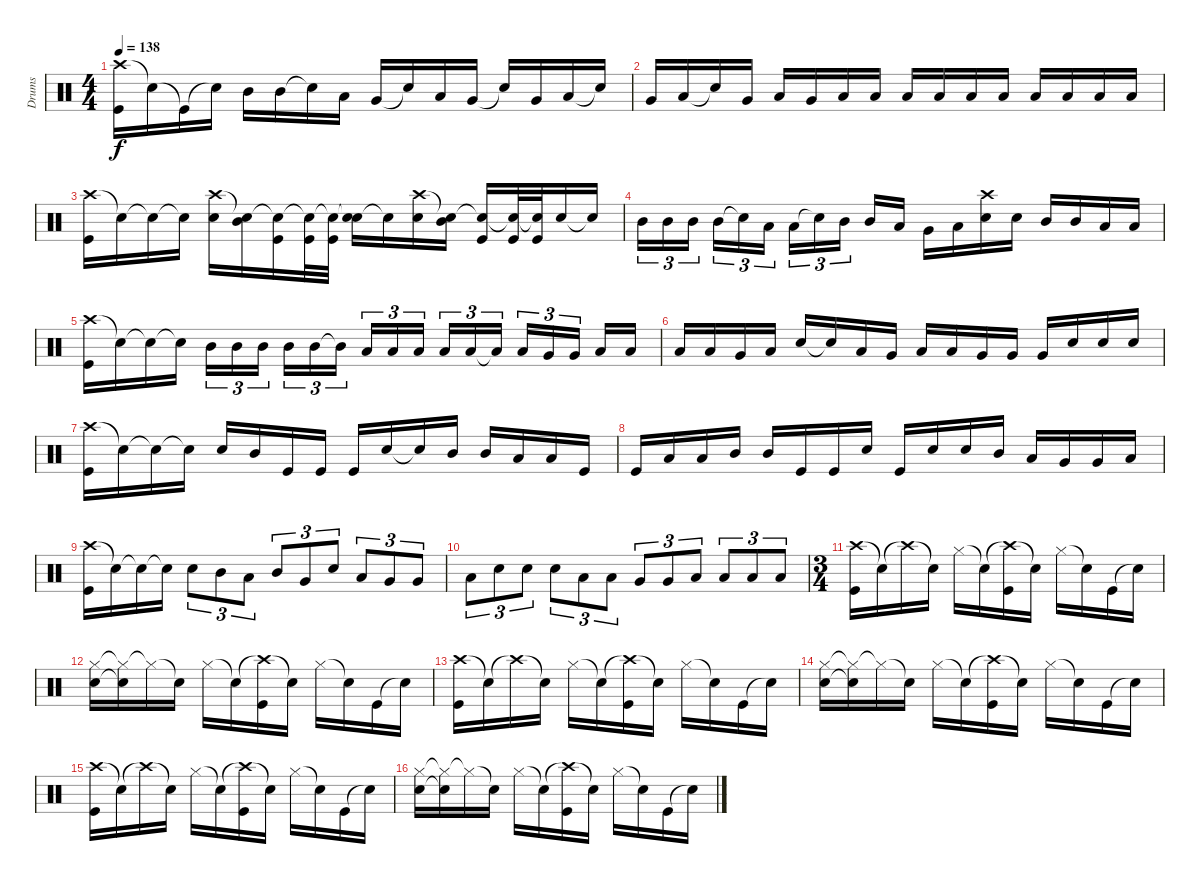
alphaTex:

\track ("Drums" "Drums") {instrument percussion}
\staff {score}
\articulation defaults
\ts (4 4)
\tempo 138
\clef neutral
\ks c
("Crash high (hit)" "Kick (hit)").16{dy f} "Snare (hit)"{t}.16 "Kick (hit)"{t}.16 "Snare (hit)"{t}.16 "Mid Tom (hit)".16 "Mid Tom (hit)".16 "Snare (hit)"{t}.16 "Low Tom (hit)".16 "Very Low Tom (hit)".16 "Snare (hit)"{t}.16 "Low Tom (hit)".16 "Very Low Tom (hit)".16 "Snare (hit)"{t}.16 "Very Low Tom (hit)".16 "Low Floor Tom (hit)".16 "Snare (hit)"{t}.16 |
"Very Low Tom (hit)".16 "Low Floor Tom (hit)".16 "Snare (hit)"{t}.16 "Very Low Tom (hit)".16 "Low Tom (hit)".16 "Very Low Tom (hit)".16 "Low Floor Tom (hit)".16 "Low Tom (hit)".16 "Low Floor Tom (hit)".16 "Low Floor Tom (hit)".16 "Low Floor Tom (hit)".16 "Low Floor Tom (hit)".16 "Low Floor Tom (hit)".16 "Low Tom (hit)".16 "Low Floor Tom (hit)".16 "Low Floor Tom (hit)".16 |
("Crash high (hit)" "Kick (hit)").16 "Snare (hit)"{t}.16 "Snare (hit)"{t}.16 "Snare (hit)"{t}.16 ("Crash high (hit)" "Electric Snare (hit)").16 ("Snare (hit)"{t} "Mid Tom (hit)").16 ("Snare (hit)"{t} "Kick (hit)").16 ("Snare (hit)"{t} "Kick (hit)").32 ("Snare (hit)"{t} "Kick (hit)").32 ("Snare (hit)"{t} "Electric Snare (hit)").16 "Snare (hit)"{t}.16 ("Crash high (hit)" "Electric Snare (hit)").16 ("Snare (hit)"{t} "Mid Tom (hit)").16 ("Snare (hit)"{t} "Kick (hit)").16 ("Snare (hit)"{t} "Kick (hit)").32 ("Snare (hit)"{t} "Kick (hit)").32 "Electric Snare (hit)".16 "Snare (hit)"{t}.16 |
"Mid Tom (hit)".16{tu (3 2)} "Mid Tom (hit)".16{tu (3 2)} "Mid Tom (hit)".16{tu (3 2)} "Mid Tom (hit)".16{tu (3 2)} "Snare (hit)"{t}.16{tu (3 2)} "Low Tom (hit)".16{tu (3 2)} "Low Tom (hit)".16{tu (3 2)} "Snare (hit)"{t}.16{tu (3 2)} "Mid Tom (hit)".16{tu (3 2)} "Mid Tom (hit)".16 "Low Tom (hit)".16 "Very Low Tom (hit)".16 "Low Floor Tom (hit)".16 ("Crash high (hit)" "Electric Snare (hit)").16 "Electric Snare (hit)".16 "Mid Tom (hit)".16 "Mid Tom (hit)".16 "Low Tom (hit)".16 "Low Tom (hit)".16 |
("Crash high (hit)" "Kick (hit)").16 "Snare (hit)"{t}.16 "Snare (hit)"{t}.16 "Snare (hit)"{t}.16 "Mid Tom (hit)".16{tu (3 2)} "Mid Tom (hit)".16{tu (3 2)} "Mid Tom (hit)".16{tu (3 2)} "Mid Tom (hit)".16{tu (3 2)} "Mid Tom (hit)".16{tu (3 2)} "Mid Tom (hit)"{t}.16{tu (3 2)} "Low Tom (hit)".16{tu (3 2)} "Low Tom (hit)".16{tu (3 2)} "Low Tom (hit)".16{tu (3 2)} "Low Tom (hit)".16{tu (3 2)} "Low Tom (hit)".16{tu (3 2)} "Low Tom (hit)"{t}.16{tu (3 2)} "Low Tom (hit)".16{tu (3 2)} "Very Low Tom (hit)".16{tu (3 2)} "Very Low Tom (hit)".16{tu (3 2)} "Low Floor Tom (hit)".16 "Low Floor Tom (hit)".16 |
"Low Floor Tom (hit)".16 "Low Tom (hit)".16 "Very Low Tom (hit)".16 "Low Floor Tom (hit)".16 "Electric Snare (hit)".16 "Electric Snare (hit)"{t}.16 "Low Tom (hit)".16 "Very Low Tom (hit)".16 "Low Floor Tom (hit)".16 "Low Tom (hit)".16 "Very Low Tom (hit)".16 "Very Low Tom (hit)".16 "Very Low Tom (hit)".16 "Electric Snare (hit)".16 "Electric Snare (hit)".16 "Electric Snare (hit)".16 |
("Crash high (hit)" "Kick (hit)").16 "Snare (hit)"{t}.16 "Snare (hit)"{t}.16 "Snare (hit)"{t}.16 "Electric Snare (hit)".16 "Mid Tom (hit)".16 "Kick (hit)".16 "Kick (hit)".16 "Kick (hit)".16 "Electric Snare (hit)".16 "Snare (hit)"{t}.16 "Mid Tom (hit)".16 "Mid Tom (hit)".16 "Low Tom (hit)".16 "Low Tom (hit)".16 "Kick (hit)".16 |
"Kick (hit)".16 "Low Tom (hit)".16 "Low Tom (hit)".16 "Mid Tom (hit)".16 "Mid Tom (hit)".16 "Kick (hit)".16 "Kick (hit)".16 "Electric Snare (hit)".16 "Kick (hit)".16 "Electric Snare (hit)".16 "Electric Snare (hit)".16 "Mid Tom (hit)".16 "Low Tom (hit)".16 "Very Low Tom (hit)".16 "Very Low Tom (hit)".16 "Low Floor Tom (hit)".16 |
("Crash high (hit)" "Kick (hit)").16 "Snare (hit)"{t}.16 "Snare (hit)"{t}.16 "Snare (hit)"{t}.16 "Electric Snare (hit)".8{tu (3 2)} "Mid Tom (hit)".8{tu (3 2)} "Low Tom (hit)".8{tu (3 2)} "Mid Tom (hit)".8{tu (3 2)} "Very Low Tom (hit)".8{tu (3 2)} "Electric Snare (hit)".8{tu (3 2)} "Low Tom (hit)".8{tu (3 2)} "Very Low Tom (hit)".8{tu (3 2)} "Very Low Tom (hit)".8{tu (3 2)} |
"Low Tom (hit)".8{tu (3 2)} "Electric Snare (hit)".8{tu (3 2)} "Electric Snare (hit)".8{tu (3 2)} "Electric Snare (hit)".8{tu (3 2)} "Low Tom (hit)".8{tu (3 2)} "Low Tom (hit)".8{tu (3 2)} "Very Low Tom (hit)".8{tu (3 2)} "Very Low Tom (hit)".8{tu (3 2)} "Low Floor Tom (hit)".8{tu (3 2)} "Low Floor Tom (hit)".8{tu (3 2)} "Low Floor Tom (hit)".8{tu (3 2)} "Low Floor Tom (hit)".8{tu (3 2)} |
\ts (3 4)
("Crash high (hit)" "Kick (hit)").16 "Snare (hit)"{t}.16 "Crash high (hit)"{t}.16 "Snare (hit)"{t}.16 "Hi-Hat (closed)".16 "Snare (hit)"{t}.16 ("Crash high (hit)"{t} "Kick (hit)").16 "Snare (hit)"{t}.16 "Hi-Hat (closed)".16 "Snare (hit)"{t}.16 "Kick (hit)".16 "Snare (hit)"{t}.16 |
("Hi-Hat (closed)" "Electric Snare (hit)").16 ("Hi-Hat (closed)"{t} "Snare (hit)"{t}).16 "Hi-Hat (closed)"{t}.16 "Snare (hit)"{t}.16 "Hi-Hat (closed)".16 "Snare (hit)"{t}.16 ("Crash high (hit)"{t} "Kick (hit)").16 "Snare (hit)"{t}.16 "Hi-Hat (closed)".16 "Snare (hit)"{t}.16 "Kick (hit)".16 "Snare (hit)"{t}.16 |
("Crash high (hit)" "Kick (hit)").16 "Snare (hit)"{t}.16 "Crash high (hit)"{t}.16 "Snare (hit)"{t}.16 "Hi-Hat (closed)".16 "Snare (hit)"{t}.16 ("Crash high (hit)"{t} "Kick (hit)").16 "Snare (hit)"{t}.16 "Hi-Hat (closed)".16 "Snare (hit)"{t}.16 "Kick (hit)".16 "Snare (hit)"{t}.16 |
("Hi-Hat (closed)" "Electric Snare (hit)").16 ("Hi-Hat (closed)"{t} "Snare (hit)"{t}).16 "Hi-Hat (closed)"{t}.16 "Snare (hit)"{t}.16 "Hi-Hat (closed)".16 "Snare (hit)"{t}.16 ("Crash high (hit)"{t} "Kick (hit)").16 "Snare (hit)"{t}.16 "Hi-Hat (closed)".16 "Snare (hit)"{t}.16 "Kick (hit)".16 "Snare (hit)"{t}.16 |
("Crash high (hit)" "Kick (hit)").16 "Snare (hit)"{t}.16 "Crash high (hit)"{t}.16 "Snare (hit)"{t}.16 "Hi-Hat (closed)".16 "Snare (hit)"{t}.16 ("Crash high (hit)"{t} "Kick (hit)").16 "Snare (hit)"{t}.16 "Hi-Hat (closed)".16 "Snare (hit)"{t}.16 "Kick (hit)".16 "Snare (hit)"{t}.16 |
("Hi-Hat (closed)" "Electric Snare (hit)").16 ("Hi-Hat (closed)"{t} "Snare (hit)"{t}).16 "Hi-Hat (closed)"{t}.16 "Snare (hit)"{t}.16 "Hi-Hat (closed)".16 "Snare (hit)"{t}.16 ("Crash high (hit)"{t} "Kick (hit)").16 "Snare (hit)"{t}.16 "Hi-Hat (closed)".16 "Snare (hit)"{t}.16 "Kick (hit)".16 "Snare (hit)"{t}.16
